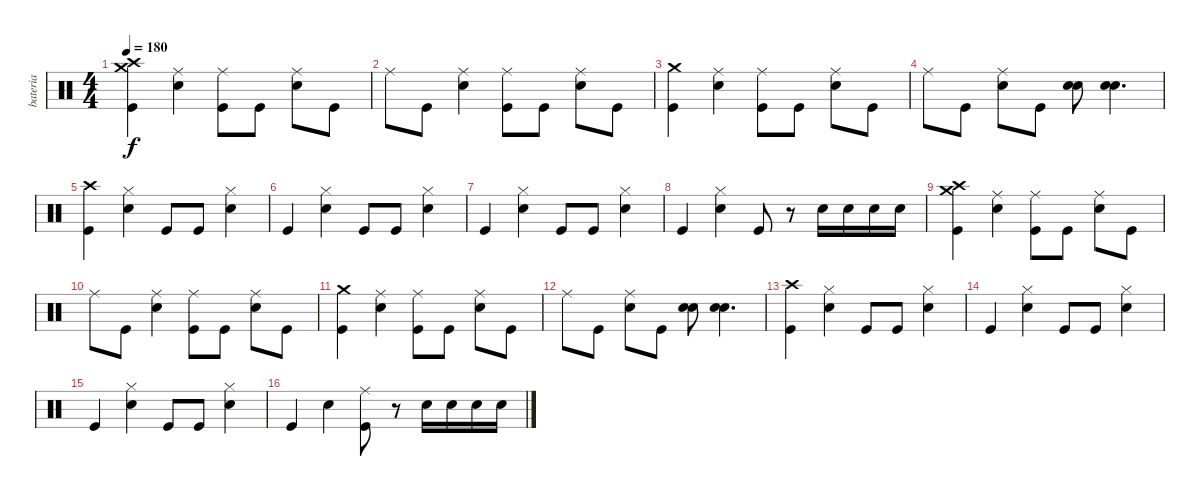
\track ("bateria" "bateria") {instrument percussion}
\staff {score}
\articulation defaults
\ts (4 4)
\tempo 180
\clef neutral
\ks c
("Crash medium (hit)" "Crash high (hit)" "Kick (hit)").4{dy f} ("Ride (middle)" "Electric Snare (hit)").4 ("Ride (middle)" "Kick (hit)").8 "Kick (hit)".8 ("Ride (middle)" "Electric Snare (hit)").8 "Kick (hit)".8 |
"Ride (middle)".8 "Kick (hit)".8 ("Ride (middle)" "Electric Snare (hit)").4 ("Ride (middle)" "Kick (hit)").8 "Kick (hit)".8 ("Ride (middle)" "Electric Snare (hit)").8 "Kick (hit)".8 |
("Crash medium (hit)" "Kick (hit)").4 ("Ride (middle)" "Electric Snare (hit)").4 ("Ride (middle)" "Kick (hit)").8 "Kick (hit)".8 ("Ride (middle)" "Electric Snare (hit)").8 "Kick (hit)".8 |
"Ride (middle)".8 "Kick (hit)".8 ("Ride (middle)" "Electric Snare (hit)").8 "Kick (hit)".8 ("Electric Snare (hit)" "Electric Snare (hit)").8 ("Electric Snare (hit)" "Electric Snare (hit)").4{d} |
("Crash high (hit)" "Kick (hit)").4 ("Hi-Hat (closed)" "Electric Snare (hit)").4 "Kick (hit)".8 "Kick (hit)".8 ("Hi-Hat (closed)" "Electric Snare (hit)").4 |
"Kick (hit)".4 ("Hi-Hat (closed)" "Electric Snare (hit)").4 "Kick (hit)".8 "Kick (hit)".8 ("Hi-Hat (closed)" "Electric Snare (hit)").4 |
"Kick (hit)".4 ("Hi-Hat (closed)" "Electric Snare (hit)").4 "Kick (hit)".8 "Kick (hit)".8 ("Hi-Hat (closed)" "Electric Snare (hit)").4 |
"Kick (hit)".4 ("Hi-Hat (closed)" "Electric Snare (hit)").4 "Kick (hit)".8 r.8 "Electric Snare (hit)".16 "Electric Snare (hit)".16 "Electric Snare (hit)".16 "Electric Snare (hit)".16 |
("Crash medium (hit)" "Crash high (hit)" "Kick (hit)").4 ("Ride (middle)" "Electric Snare (hit)").4 ("Ride (middle)" "Kick (hit)").8 "Kick (hit)".8 ("Ride (middle)" "Electric Snare (hit)").8 "Kick (hit)".8 |
"Ride (middle)".8 "Kick (hit)".8 ("Ride (middle)" "Electric Snare (hit)").4 ("Ride (middle)" "Kick (hit)").8 "Kick (hit)".8 ("Ride (middle)" "Electric Snare (hit)").8 "Kick (hit)".8 |
("Crash medium (hit)" "Kick (hit)").4 ("Ride (middle)" "Electric Snare (hit)").4 ("Ride (middle)" "Kick (hit)").8 "Kick (hit)".8 ("Ride (middle)" "Electric Snare (hit)").8 "Kick (hit)".8 |
"Ride (middle)".8 "Kick (hit)".8 ("Ride (middle)" "Electric Snare (hit)").8 "Kick (hit)".8 ("Electric Snare (hit)" "Electric Snare (hit)").8 ("Electric Snare (hit)" "Electric Snare (hit)").4{d} |
("Crash high (hit)" "Kick (hit)").4 ("Hi-Hat (closed)" "Electric Snare (hit)").4 "Kick (hit)".8 "Kick (hit)".8 ("Hi-Hat (closed)" "Electric Snare (hit)").4 |
"Kick (hit)".4 ("Hi-Hat (closed)" "Electric Snare (hit)").4 "Kick (hit)".8 "Kick (hit)".8 ("Hi-Hat (closed)" "Electric Snare (hit)").4 |
"Kick (hit)".4 ("Hi-Hat (closed)" "Electric Snare (hit)").4 "Kick (hit)".8 "Kick (hit)".8 ("Hi-Hat (closed)" "Electric Snare (hit)").4 |
"Kick (hit)".4 "Electric Snare (hit)".4 ("Ride (middle)" "Kick (hit)").8 r.8 "Electric Snare (hit)".16 "Electric Snare (hit)".16 "Electric Snare (hit)".16 "Electric Snare (hit)".16
